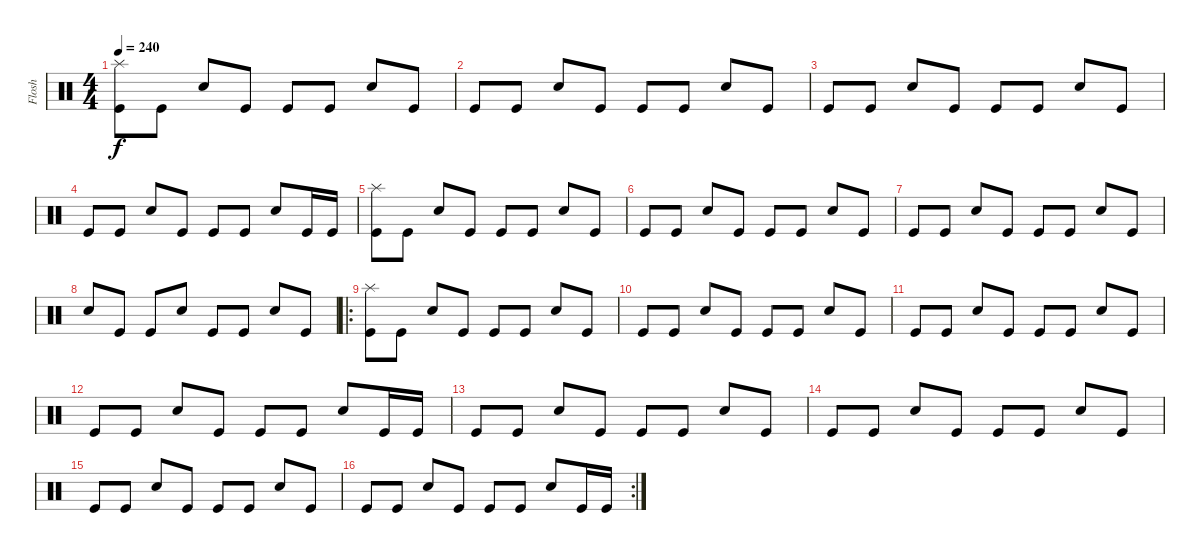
\track ("Flosh" "Flosh") {instrument percussion}
\staff {score}
\articulation defaults
\ts (4 4)
\tempo 240
\clef neutral
\ks c
("Splash (hit)" "Kick (hit)").8{dy f} "Kick (hit)".8 "Snare (hit) 2".8 "Kick (hit)".8 "Kick (hit)".8 "Kick (hit)".8 "Snare (hit) 2".8 "Kick (hit)".8 |
"Kick (hit)".8 "Kick (hit)".8 "Snare (hit) 2".8 "Kick (hit)".8 "Kick (hit)".8 "Kick (hit)".8 "Snare (hit) 2".8 "Kick (hit)".8 |
"Kick (hit)".8 "Kick (hit)".8 "Snare (hit) 2".8 "Kick (hit)".8 "Kick (hit)".8 "Kick (hit)".8 "Snare (hit) 2".8 "Kick (hit)".8 |
"Kick (hit)".8 "Kick (hit)".8 "Snare (hit) 2".8 "Kick (hit)".8 "Kick (hit)".8 "Kick (hit)".8 "Snare (hit) 2".8 "Kick (hit)".16 "Kick (hit)".16 |
("Splash (hit)" "Kick (hit)").8 "Kick (hit)".8 "Snare (hit) 2".8 "Kick (hit)".8 "Kick (hit)".8 "Kick (hit)".8 "Snare (hit) 2".8 "Kick (hit)".8 |
"Kick (hit)".8 "Kick (hit)".8 "Snare (hit) 2".8 "Kick (hit)".8 "Kick (hit)".8 "Kick (hit)".8 "Snare (hit) 2".8 "Kick (hit)".8 |
"Kick (hit)".8 "Kick (hit)".8 "Snare (hit) 2".8 "Kick (hit)".8 "Kick (hit)".8 "Kick (hit)".8 "Snare (hit) 2".8 "Kick (hit)".8 |
"Snare (hit) 2".8 "Kick (hit)".8 "Kick (hit)".8 "Snare (hit) 2".8 "Kick (hit)".8 "Kick (hit)".8 "Snare (hit) 2".8 "Kick (hit)".8 |
\ro
("Splash (hit)" "Kick (hit)").8 "Kick (hit)".8 "Snare (hit) 2".8 "Kick (hit)".8 "Kick (hit)".8 "Kick (hit)".8 "Snare (hit) 2".8 "Kick (hit)".8 |
"Kick (hit)".8 "Kick (hit)".8 "Snare (hit) 2".8 "Kick (hit)".8 "Kick (hit)".8 "Kick (hit)".8 "Snare (hit) 2".8 "Kick (hit)".8 |
"Kick (hit)".8 "Kick (hit)".8 "Snare (hit) 2".8 "Kick (hit)".8 "Kick (hit)".8 "Kick (hit)".8 "Snare (hit) 2".8 "Kick (hit)".8 |
"Kick (hit)".8 "Kick (hit)".8 "Snare (hit) 2".8 "Kick (hit)".8 "Kick (hit)".8 "Kick (hit)".8 "Snare (hit) 2".8 "Kick (hit)".16 "Kick (hit)".16 |
"Kick (hit)".8 "Kick (hit)".8 "Snare (hit) 2".8 "Kick (hit)".8 "Kick (hit)".8 "Kick (hit)".8 "Snare (hit) 2".8 "Kick (hit)".8 |
"Kick (hit)".8 "Kick (hit)".8 "Snare (hit) 2".8 "Kick (hit)".8 "Kick (hit)".8 "Kick (hit)".8 "Snare (hit) 2".8 "Kick (hit)".8 |
"Kick (hit)".8 "Kick (hit)".8 "Snare (hit) 2".8 "Kick (hit)".8 "Kick (hit)".8 "Kick (hit)".8 "Snare (hit) 2".8 "Kick (hit)".8 |
\rc 2 "Kick (hit)".8 "Kick (hit)".8 "Snare (hit) 2".8 "Kick (hit)".8 "Kick (hit)".8 "Kick (hit)".8 "Snare (hit) 2".8 "Kick (hit)".16 "Kick (hit)".16
